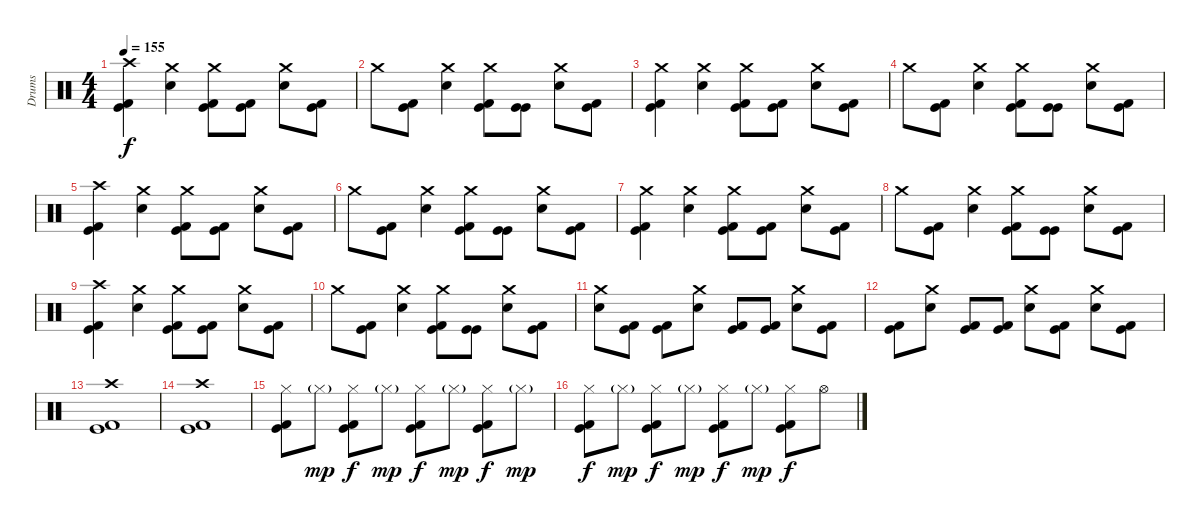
\track ("Drums" "Drums") {instrument percussion}
\staff {score}
\articulation defaults
\ts (4 4)
\tempo 155
\clef neutral
\ks c
("Crash high (hit)" "Kick (hit)" "Kick (hit) 2").4{dy f} ("Crash medium (hit)" "Electric Snare (hit)").4 ("Crash medium (hit)" "Kick (hit)" "Kick (hit) 2").8 ("Kick (hit)" "Kick (hit) 2").8 ("Crash medium (hit)" "Electric Snare (hit)").8 ("Kick (hit)" "Kick (hit) 2").8 |
"Crash medium (hit)".8 ("Kick (hit)" "Kick (hit) 2").8 ("Crash medium (hit)" "Electric Snare (hit)").4 ("Crash medium (hit)" "Kick (hit)" "Kick (hit) 2").8 ("Kick (hit)" "Kick (hit)").8 ("Crash medium (hit)" "Electric Snare (hit)").8 ("Kick (hit)" "Kick (hit) 2").8 |
("Crash medium (hit)" "Kick (hit)" "Kick (hit) 2").4 ("Crash medium (hit)" "Electric Snare (hit)").4 ("Crash medium (hit)" "Kick (hit)" "Kick (hit) 2").8 ("Kick (hit)" "Kick (hit) 2").8 ("Crash medium (hit)" "Electric Snare (hit)").8 ("Kick (hit)" "Kick (hit) 2").8 |
"Crash medium (hit)".8 ("Kick (hit)" "Kick (hit) 2").8 ("Crash medium (hit)" "Electric Snare (hit)").4 ("Crash medium (hit)" "Kick (hit)" "Kick (hit) 2").8 ("Kick (hit)" "Kick (hit)").8 ("Crash medium (hit)" "Electric Snare (hit)").8 ("Kick (hit)" "Kick (hit) 2").8 |
("Crash high (hit)" "Kick (hit)" "Kick (hit) 2").4 ("Crash medium (hit)" "Electric Snare (hit)").4 ("Crash medium (hit)" "Kick (hit)" "Kick (hit) 2").8 ("Kick (hit)" "Kick (hit) 2").8 ("Crash medium (hit)" "Electric Snare (hit)").8 ("Kick (hit)" "Kick (hit) 2").8 |
"Crash medium (hit)".8 ("Kick (hit)" "Kick (hit) 2").8 ("Crash medium (hit)" "Electric Snare (hit)").4 ("Crash medium (hit)" "Kick (hit)" "Kick (hit) 2").8 ("Kick (hit)" "Kick (hit)").8 ("Crash medium (hit)" "Electric Snare (hit)").8 ("Kick (hit)" "Kick (hit) 2").8 |
("Crash medium (hit)" "Kick (hit)" "Kick (hit) 2").4 ("Crash medium (hit)" "Electric Snare (hit)").4 ("Crash medium (hit)" "Kick (hit)" "Kick (hit) 2").8 ("Kick (hit)" "Kick (hit) 2").8 ("Crash medium (hit)" "Electric Snare (hit)").8 ("Kick (hit)" "Kick (hit) 2").8 |
"Crash medium (hit)".8 ("Kick (hit)" "Kick (hit) 2").8 ("Crash medium (hit)" "Electric Snare (hit)").4 ("Crash medium (hit)" "Kick (hit)" "Kick (hit) 2").8 ("Kick (hit)" "Kick (hit)").8 ("Crash medium (hit)" "Electric Snare (hit)").8 ("Kick (hit)" "Kick (hit) 2").8 |
("Crash high (hit)" "Kick (hit)" "Kick (hit) 2").4 ("Crash medium (hit)" "Electric Snare (hit)").4 ("Crash medium (hit)" "Kick (hit)" "Kick (hit) 2").8 ("Kick (hit)" "Kick (hit) 2").8 ("Crash medium (hit)" "Electric Snare (hit)").8 ("Kick (hit)" "Kick (hit) 2").8 |
"Crash medium (hit)".8 ("Kick (hit)" "Kick (hit) 2").8 ("Crash medium (hit)" "Electric Snare (hit)").4 ("Crash medium (hit)" "Kick (hit)" "Kick (hit) 2").8 ("Kick (hit)" "Kick (hit)").8 ("Crash medium (hit)" "Electric Snare (hit)").8 ("Kick (hit)" "Kick (hit) 2").8 |
("Crash medium (hit)" "Electric Snare (hit)").8 ("Kick (hit)" "Kick (hit) 2").8 ("Kick (hit)" "Kick (hit) 2").8 ("Crash medium (hit)" "Electric Snare (hit)").8 ("Kick (hit)" "Kick (hit) 2").8 ("Kick (hit)" "Kick (hit) 2").8 ("Crash medium (hit)" "Electric Snare (hit)").8 ("Kick (hit)" "Kick (hit) 2").8 |
("Kick (hit)" "Kick (hit) 2").8 ("Crash medium (hit)" "Electric Snare (hit)").8 ("Kick (hit)" "Kick (hit) 2").8 ("Kick (hit)" "Kick (hit) 2").8 ("Crash medium (hit)" "Electric Snare (hit)").8 ("Kick (hit)" "Kick (hit) 2").8 ("Crash medium (hit)" "Electric Snare (hit)").8 ("Kick (hit)" "Kick (hit) 2").8 |
("Crash high (hit)" "Kick (hit)" "Kick (hit) 2").1 |
("Crash high (hit)" "Kick (hit)" "Kick (hit) 2").1 |
("Hi-Hat (closed)" "Kick (hit)" "Kick (hit) 2").8 "Hi-Hat (closed)"{g}.8{dy mp} ("Hi-Hat (closed)" "Kick (hit)" "Kick (hit) 2").8{dy f} "Hi-Hat (closed)"{g}.8{dy mp} ("Hi-Hat (closed)" "Kick (hit)" "Kick (hit) 2").8{dy f} "Hi-Hat (closed)"{g}.8{dy mp} ("Hi-Hat (closed)" "Kick (hit)" "Kick (hit) 2").8{dy f} "Hi-Hat (closed)"{g}.8{dy mp} |
("Hi-Hat (closed)" "Kick (hit)" "Kick (hit) 2").8{dy f} "Hi-Hat (closed)"{g}.8{dy mp} ("Hi-Hat (closed)" "Kick (hit)" "Kick (hit) 2").8{dy f} "Hi-Hat (closed)"{g}.8{dy mp} ("Hi-Hat (closed)" "Kick (hit)" "Kick (hit) 2").8{dy f} "Hi-Hat (closed)"{g}.8{dy mp} ("Hi-Hat (closed)" "Kick (hit)" "Kick (hit) 2").8{dy f} "Hi-Hat (open)".8
